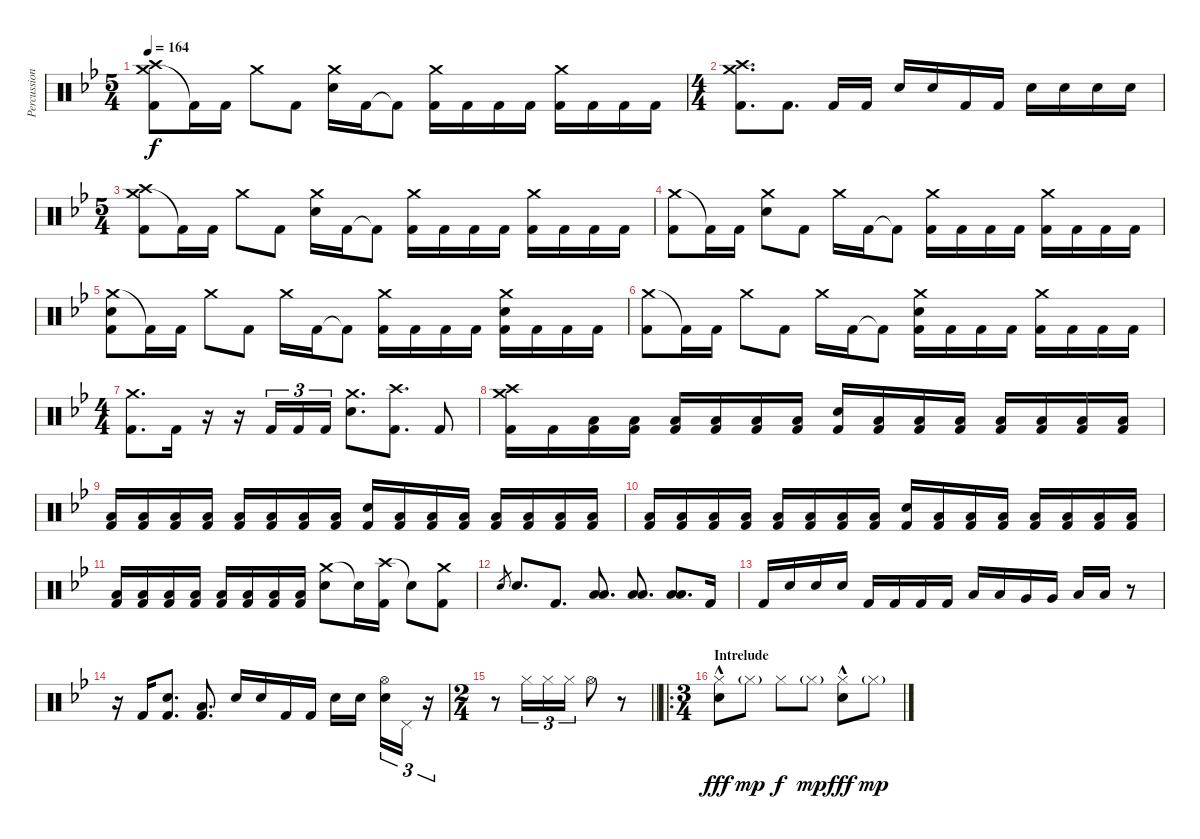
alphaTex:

\track ("Percussion" "Percussion") {instrument percussion}
\staff {score}
\articulation defaults
\ts (5 4)
\tempo 164
\clef neutral
\ks bb
("Crash medium (hit)" "Crash high (hit)" "Kick (hit) 2").8{dy f} "Kick (hit) 2"{t}.16 "Kick (hit) 2".16 "Crash medium (hit)".8 "Kick (hit) 2".8 ("Crash medium (hit)" "Electric Snare (hit)").16 "Kick (hit) 2".16 "Kick (hit) 2"{t}.8 ("Crash medium (hit)" "Kick (hit) 2").16 "Kick (hit) 2".16 "Kick (hit) 2".16 "Kick (hit) 2".16 ("Crash medium (hit)" "Kick (hit) 2").16 "Kick (hit) 2".16 "Kick (hit) 2".16 "Kick (hit) 2".16 |
\ts (4 4)
("Crash medium (hit)" "Crash high (hit)" "Kick (hit) 2").8{d} "Kick (hit) 2".8{d} "Kick (hit) 2".16 "Kick (hit) 2".16 "Electric Snare (hit)".16 "Electric Snare (hit)".16 "Kick (hit) 2".16 "Kick (hit) 2".16 "Electric Snare (hit)".16 "Electric Snare (hit)".16 "Electric Snare (hit)".16 "Electric Snare (hit)".16 |
\ts (5 4)
("Crash medium (hit)" "Crash high (hit)" "Kick (hit) 2").8 "Kick (hit) 2"{t}.16 "Kick (hit) 2".16 "Crash medium (hit)".8 "Kick (hit) 2".8 ("Crash medium (hit)" "Electric Snare (hit)").16 "Kick (hit) 2".16 "Kick (hit) 2"{t}.8 ("Crash medium (hit)" "Kick (hit) 2").16 "Kick (hit) 2".16 "Kick (hit) 2".16 "Kick (hit) 2".16 ("Crash medium (hit)" "Kick (hit) 2").16 "Kick (hit) 2".16 "Kick (hit) 2".16 "Kick (hit) 2".16 |
("Crash medium (hit)" "Kick (hit) 2").8 "Kick (hit) 2"{t}.16 "Kick (hit) 2".16 ("Crash medium (hit)" "Electric Snare (hit)").8 "Kick (hit) 2".8 "Crash medium (hit)".16 "Kick (hit) 2".16 "Kick (hit) 2"{t}.8 ("Crash medium (hit)" "Kick (hit) 2").16 "Kick (hit) 2".16 "Kick (hit) 2".16 "Kick (hit) 2".16 ("Crash medium (hit)" "Kick (hit) 2").16 "Kick (hit) 2".16 "Kick (hit) 2".16 "Kick (hit) 2".16 |
("Crash medium (hit)" "Electric Snare (hit)" "Kick (hit) 2").8 "Kick (hit) 2"{t}.16 "Kick (hit) 2".16 "Crash medium (hit)".8 "Kick (hit) 2".8 "Crash medium (hit)".16 "Kick (hit) 2".16 "Kick (hit) 2"{t}.8 ("Crash medium (hit)" "Kick (hit) 2").16 "Kick (hit) 2".16 "Kick (hit) 2".16 "Kick (hit) 2".16 ("Crash medium (hit)" "Electric Snare (hit)" "Kick (hit) 2").16 "Kick (hit) 2".16 "Kick (hit) 2".16 "Kick (hit) 2".16 |
("Crash medium (hit)" "Kick (hit) 2").8 "Kick (hit) 2"{t}.16 "Kick (hit) 2".16 "Crash medium (hit)".8 "Kick (hit) 2".8 "Crash medium (hit)".16 "Kick (hit) 2".16 "Kick (hit) 2"{t}.8 ("Crash medium (hit)" "Electric Snare (hit)" "Kick (hit) 2").16 "Kick (hit) 2".16 "Kick (hit) 2".16 "Kick (hit) 2".16 ("Crash medium (hit)" "Kick (hit) 2").16 "Kick (hit) 2".16 "Kick (hit) 2".16 "Kick (hit) 2".16 |
\ts (4 4)
("Crash medium (hit)" "Kick (hit) 2").8{d} "Kick (hit) 2".16 r.16{volume 0} r.16 "Kick (hit) 2".16{tu (3 2) volume 14} "Kick (hit) 2".16{tu (3 2)} "Kick (hit) 2".16{tu (3 2)} ("Crash medium (hit)" "Electric Snare (hit)").8{d} ("Crash high (hit)" "Kick (hit) 2").8{d} "Kick (hit) 2".8 |
("Crash medium (hit)" "Crash high (hit)" "Kick (hit) 2").16 "Kick (hit) 2".16 ("Low Floor Tom (hit)" "Kick (hit) 2").16 ("Low Floor Tom (hit)" "Kick (hit) 2").16 ("Low Floor Tom (hit)" "Kick (hit) 2").16 ("Low Floor Tom (hit)" "Kick (hit) 2").16 ("Low Floor Tom (hit)" "Kick (hit) 2").16 ("Low Floor Tom (hit)" "Kick (hit) 2").16 ("Electric Snare (hit)" "Kick (hit) 2").16 ("Low Floor Tom (hit)" "Kick (hit) 2").16 ("Low Floor Tom (hit)" "Kick (hit) 2").16 ("Low Floor Tom (hit)" "Kick (hit) 2").16 ("Low Floor Tom (hit)" "Kick (hit) 2").16 ("Low Floor Tom (hit)" "Kick (hit) 2").16 ("Low Floor Tom (hit)" "Kick (hit) 2").16 ("Low Floor Tom (hit)" "Kick (hit) 2").16 |
("Low Floor Tom (hit)" "Kick (hit) 2").16 ("Low Floor Tom (hit)" "Kick (hit) 2").16 ("Low Floor Tom (hit)" "Kick (hit) 2").16 ("Low Floor Tom (hit)" "Kick (hit) 2").16 ("Low Floor Tom (hit)" "Kick (hit) 2").16 ("Low Floor Tom (hit)" "Kick (hit) 2").16 ("Low Floor Tom (hit)" "Kick (hit) 2").16 ("Low Floor Tom (hit)" "Kick (hit) 2").16 ("Electric Snare (hit)" "Kick (hit) 2").16 ("Low Floor Tom (hit)" "Kick (hit) 2").16 ("Low Floor Tom (hit)" "Kick (hit) 2").16 ("Low Floor Tom (hit)" "Kick (hit) 2").16 ("Low Floor Tom (hit)" "Kick (hit) 2").16 ("Low Floor Tom (hit)" "Kick (hit) 2").16 ("Low Floor Tom (hit)" "Kick (hit) 2").16 ("Low Floor Tom (hit)" "Kick (hit) 2").16 |
("Low Floor Tom (hit)" "Kick (hit) 2").16 ("Low Floor Tom (hit)" "Kick (hit) 2").16 ("Low Floor Tom (hit)" "Kick (hit) 2").16 ("Low Floor Tom (hit)" "Kick (hit) 2").16 ("Low Floor Tom (hit)" "Kick (hit) 2").16 ("Low Floor Tom (hit)" "Kick (hit) 2").16 ("Low Floor Tom (hit)" "Kick (hit) 2").16 ("Low Floor Tom (hit)" "Kick (hit) 2").16 ("Electric Snare (hit)" "Kick (hit) 2").16 ("Low Floor Tom (hit)" "Kick (hit) 2").16 ("Low Floor Tom (hit)" "Kick (hit) 2").16 ("Low Floor Tom (hit)" "Kick (hit) 2").16 ("Low Floor Tom (hit)" "Kick (hit) 2").16 ("Low Floor Tom (hit)" "Kick (hit) 2").16 ("Low Floor Tom (hit)" "Kick (hit) 2").16 ("Low Floor Tom (hit)" "Kick (hit) 2").16 |
("Low Floor Tom (hit)" "Kick (hit) 2").16 ("Low Floor Tom (hit)" "Kick (hit) 2").16 ("Low Floor Tom (hit)" "Kick (hit) 2").16 ("Low Floor Tom (hit)" "Kick (hit) 2").16 ("Low Floor Tom (hit)" "Kick (hit) 2").16 ("Low Floor Tom (hit)" "Kick (hit) 2").16 ("Low Floor Tom (hit)" "Kick (hit) 2").16 ("Low Floor Tom (hit)" "Kick (hit) 2").16 ("Crash medium (hit)" "Electric Snare (hit)").8 "Electric Snare (hit)"{t}.16 ("Crash high (hit)" "Kick (hit) 2").16 "Electric Snare (hit)"{t}.8 ("Crash medium (hit)" "Kick (hit) 2").8 |
"Electric Snare (hit)".8{gr} "Electric Snare (hit)".8{d} "Kick (hit) 2".8{d} ("Low Floor Tom (hit)" "Low Floor Tom (hit)").8{d} ("Low Floor Tom (hit)" "Low Floor Tom (hit)").8{d} ("Low Floor Tom (hit)" "Low Floor Tom (hit)").8{d} "Kick (hit) 2".16 |
"Kick (hit) 2".16 "Electric Snare (hit)".16 "Electric Snare (hit)".16 "Electric Snare (hit)".16 "Kick (hit) 2".16 "Kick (hit) 2".16 "Kick (hit) 2".16 "Kick (hit) 2".16 "Low Tom (hit)".16 "Low Tom (hit)".16 "Very Low Tom (hit)".16 "Very Low Tom (hit)".16 "Low Floor Tom (hit)".16 "Low Floor Tom (hit)".16 r.8 |
r.16 "Kick (hit) 2".16 ("Electric Snare (hit)" "Kick (hit) 2").8{d} ("Low Floor Tom (hit)" "Kick (hit) 2").8{d} "Electric Snare (hit)".16 "Electric Snare (hit)".16 "Kick (hit) 2".16 "Kick (hit) 2".16 "Electric Snare (hit)".16 "Electric Snare (hit)".16{beam splitsecondary} ("Hi-Hat (open)" "Electric Snare (hit)").16{tu (3 2)} "Pedal Hi-Hat (hit)".16{tu (3 2)} r.16{tu (3 2)} |
\ts (2 4)
\barLineRight lightlight
r.8 "Hi-Hat (closed)".16{tu (3 2) volume 12} "Hi-Hat (closed)".16{tu (3 2)} "Hi-Hat (closed)".16{tu (3 2)} "Hi-Hat (open)".8 r.8 |
\ro
\ts (3 4)
\section ("" "Intrelude")
("Hi-Hat (closed)" "Electric Snare (hit)"{hac}).8{dy fff} "Hi-Hat (closed)"{g}.8{dy mp} "Hi-Hat (closed)".8{dy f} "Hi-Hat (closed)"{g}.8{dy mp} ("Hi-Hat (closed)" "Electric Snare (hit)"{hac}).8{dy fff} "Hi-Hat (closed)"{g}.8{dy mp}
